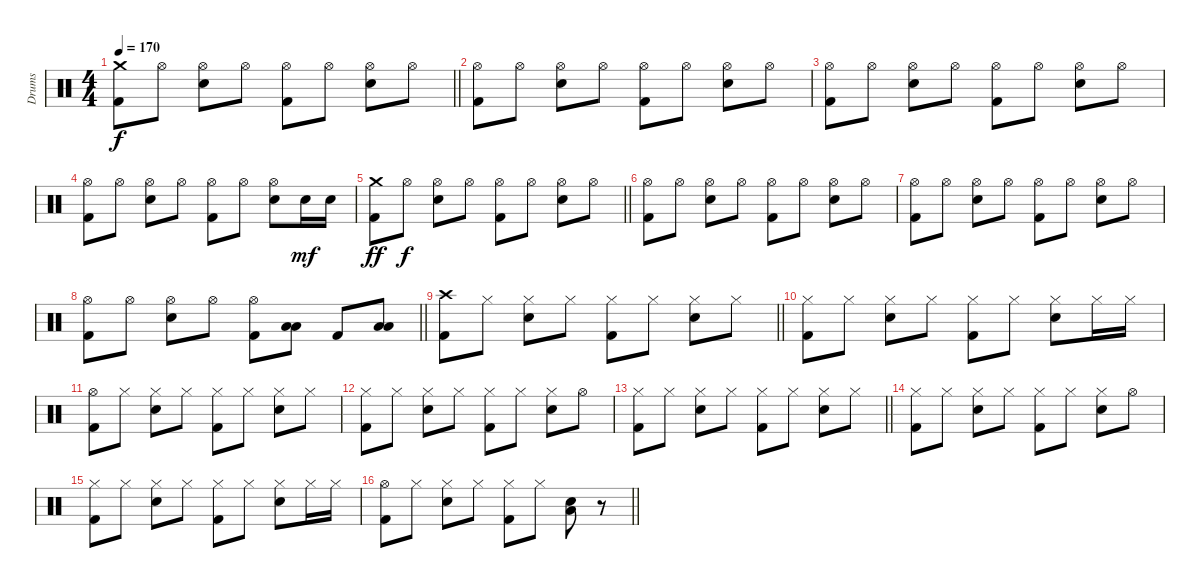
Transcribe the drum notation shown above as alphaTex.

\track ("Drums" "Drums") {instrument percussion}
\staff {score}
\articulation defaults
\ts (4 4)
\tempo 170
\clef neutral
\barLineRight lightlight
\ks c
("Crash medium (hit)" "Kick (hit) 2").8{dy f} "Hi-Hat (open)".8 ("Hi-Hat (open)" "Electric Snare (hit)").8 "Hi-Hat (open)".8 ("Hi-Hat (open)" "Kick (hit) 2").8 "Hi-Hat (open)".8 ("Hi-Hat (open)" "Electric Snare (hit)").8 "Hi-Hat (open)".8 |
("Hi-Hat (open)" "Kick (hit) 2").8 "Hi-Hat (open)".8 ("Hi-Hat (open)" "Electric Snare (hit)").8 "Hi-Hat (open)".8 ("Hi-Hat (open)" "Kick (hit) 2").8 "Hi-Hat (open)".8 ("Hi-Hat (open)" "Electric Snare (hit)").8 "Hi-Hat (open)".8 |
("Hi-Hat (open)" "Kick (hit) 2").8 "Hi-Hat (open)".8 ("Hi-Hat (open)" "Electric Snare (hit)").8 "Hi-Hat (open)".8 ("Hi-Hat (open)" "Kick (hit) 2").8 "Hi-Hat (open)".8 ("Hi-Hat (open)" "Electric Snare (hit)").8 "Hi-Hat (open)".8 |
("Hi-Hat (open)" "Kick (hit) 2").8 "Hi-Hat (open)".8 ("Hi-Hat (open)" "Electric Snare (hit)").8 "Hi-Hat (open)".8 ("Hi-Hat (open)" "Kick (hit) 2").8 "Hi-Hat (open)".8 ("Hi-Hat (open)" "Electric Snare (hit)").8 "Electric Snare (hit)".16{dy mf} "Electric Snare (hit)".16 |
\barLineRight lightlight
("Crash medium (hit)" "Kick (hit) 2").8{dy ff} "Hi-Hat (open)".8{dy f} ("Hi-Hat (open)" "Electric Snare (hit)").8 "Hi-Hat (open)".8 ("Hi-Hat (open)" "Kick (hit) 2").8 "Hi-Hat (open)".8 ("Hi-Hat (open)" "Electric Snare (hit)").8 "Hi-Hat (open)".8 |
("Hi-Hat (open)" "Kick (hit) 2").8 "Hi-Hat (open)".8 ("Hi-Hat (open)" "Electric Snare (hit)").8 "Hi-Hat (open)".8 ("Hi-Hat (open)" "Kick (hit) 2").8 "Hi-Hat (open)".8 ("Hi-Hat (open)" "Electric Snare (hit)").8 "Hi-Hat (open)".8 |
("Hi-Hat (open)" "Kick (hit) 2").8 "Hi-Hat (open)".8 ("Hi-Hat (open)" "Electric Snare (hit)").8 "Hi-Hat (open)".8 ("Hi-Hat (open)" "Kick (hit) 2").8 "Hi-Hat (open)".8 ("Hi-Hat (open)" "Electric Snare (hit)").8 "Hi-Hat (open)".8 |
\barLineRight lightlight
("Hi-Hat (open)" "Kick (hit) 2").8 "Hi-Hat (open)".8 ("Hi-Hat (open)" "Electric Snare (hit)").8 "Hi-Hat (open)".8 ("Hi-Hat (open)" "Kick (hit) 2").8 ("Low Tom (hit)" "Low Floor Tom (hit)").8 "Kick (hit) 2".8 ("Low Tom (hit)" "Low Floor Tom (hit)").8 |
\barLineRight lightlight
("Crash high (hit)" "Kick (hit) 2").8 "Hi-Hat (closed)".8 ("Hi-Hat (closed)" "Electric Snare (hit)").8 "Hi-Hat (closed)".8 ("Hi-Hat (closed)" "Kick (hit) 2").8 "Hi-Hat (closed)".8 ("Hi-Hat (closed)" "Electric Snare (hit)").8 "Hi-Hat (closed)".8 |
("Hi-Hat (closed)" "Kick (hit) 2").8 "Hi-Hat (closed)".8 ("Hi-Hat (closed)" "Electric Snare (hit)").8 "Hi-Hat (closed)".8 ("Hi-Hat (closed)" "Kick (hit) 2").8 "Hi-Hat (closed)".8 ("Hi-Hat (closed)" "Electric Snare (hit)").8 "Hi-Hat (closed)".16 "Hi-Hat (closed)".16 |
("Hi-Hat (open)" "Kick (hit) 2").8 "Hi-Hat (closed)".8 ("Hi-Hat (closed)" "Electric Snare (hit)").8 "Hi-Hat (closed)".8 ("Hi-Hat (closed)" "Kick (hit) 2").8 "Hi-Hat (closed)".8 ("Hi-Hat (closed)" "Electric Snare (hit)").8 "Hi-Hat (closed)".8 |
("Hi-Hat (closed)" "Kick (hit) 2").8 "Hi-Hat (closed)".8 ("Hi-Hat (closed)" "Electric Snare (hit)").8 "Hi-Hat (closed)".8 ("Hi-Hat (closed)" "Kick (hit) 2").8 "Hi-Hat (closed)".8 ("Hi-Hat (closed)" "Electric Snare (hit)").8 "Hi-Hat (open)".8 |
\barLineRight lightlight
("Hi-Hat (closed)" "Kick (hit) 2").8 "Hi-Hat (closed)".8 ("Hi-Hat (closed)" "Electric Snare (hit)").8 "Hi-Hat (closed)".8 ("Hi-Hat (closed)" "Kick (hit) 2").8 "Hi-Hat (closed)".8 ("Hi-Hat (closed)" "Electric Snare (hit)").8 "Hi-Hat (closed)".8 |
("Hi-Hat (closed)" "Kick (hit) 2").8 "Hi-Hat (closed)".8 ("Hi-Hat (closed)" "Electric Snare (hit)").8 "Hi-Hat (closed)".8 ("Hi-Hat (closed)" "Kick (hit) 2").8 "Hi-Hat (closed)".8 ("Hi-Hat (closed)" "Electric Snare (hit)").8 "Hi-Hat (open)".8 |
("Hi-Hat (closed)" "Kick (hit) 2").8 "Hi-Hat (closed)".8 ("Hi-Hat (closed)" "Electric Snare (hit)").8 "Hi-Hat (closed)".8 ("Hi-Hat (closed)" "Kick (hit) 2").8 "Hi-Hat (closed)".8 ("Hi-Hat (closed)" "Electric Snare (hit)").8 "Hi-Hat (closed)".16 "Hi-Hat (closed)".16 |
\barLineRight lightlight
("Hi-Hat (open)" "Kick (hit) 2").8 "Hi-Hat (closed)".8 ("Hi-Hat (closed)" "Electric Snare (hit)").8 "Hi-Hat (closed)".8 ("Hi-Hat (closed)" "Kick (hit) 2").8 "Hi-Hat (closed)".8 ("Low Floor Tom (hit)" "Electric Snare (hit)").8 r.8
